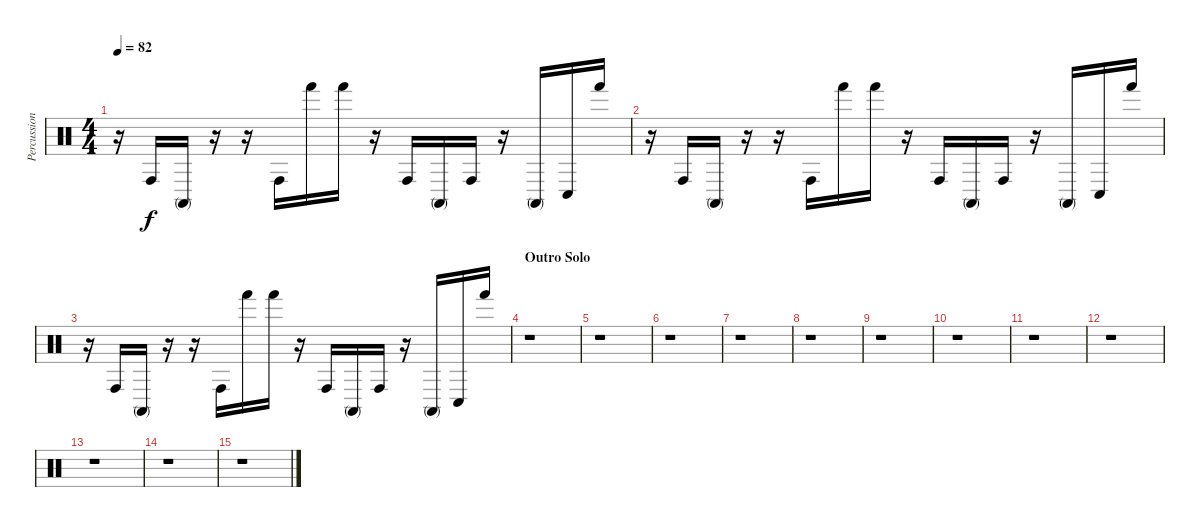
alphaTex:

\track ("Percussion" "Percussion") {instrument percussion}
\staff {score}
\articulation defaults
\ts (4 4)
\tempo 82
\clef neutral
\ks c
r.16{dy f} "Conga high (hit)".16 "Conga high (mute)".16 r.16 r.16 "Conga high (hit)".16 "Hand (hit)".16 "Hand (hit)".16 r.16 "Conga high (hit)".16 "Conga high (mute)".16 "Conga high (hit)".16 r.16 "Conga high (mute)".16 "Conga low (hit)".16 "Hand (hit)".16 |
r.16 "Conga high (hit)".16 "Conga high (mute)".16 r.16 r.16 "Conga high (hit)".16 "Hand (hit)".16 "Hand (hit)".16 r.16 "Conga high (hit)".16 "Conga high (mute)".16 "Conga high (hit)".16 r.16 "Conga high (mute)".16 "Conga low (hit)".16 "Hand (hit)".16 |
r.16 "Conga high (hit)".16 "Conga high (mute)".16 r.16 r.16 "Conga high (hit)".16 "Hand (hit)".16 "Hand (hit)".16 r.16 "Conga high (hit)".16 "Conga high (mute)".16 "Conga high (hit)".16 r.16 "Conga high (mute)".16 "Conga low (hit)".16 "Hand (hit)".16 |
\section ("" "Outro Solo")
r.1 |
r.1 |
r.1 |
r.1 |
r.1 |
r.1 |
r.1 |
r.1 |
r.1 |
r.1 |
r.1 |
r.1
